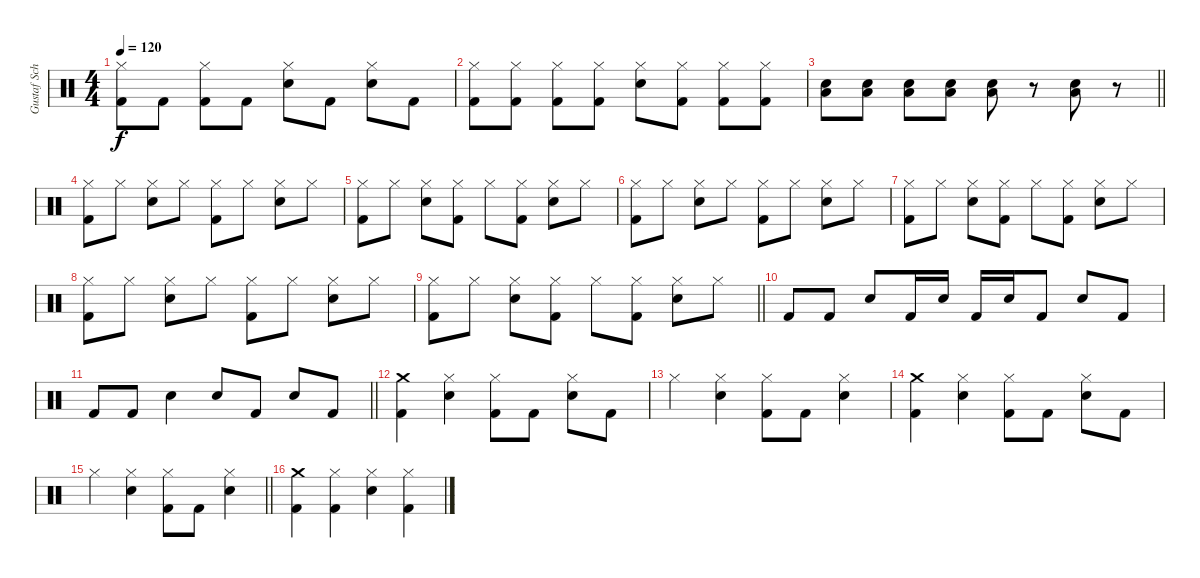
\track ("Gustaf Schafer" "Gustaf Sch") {instrument percussion}
\staff {score}
\articulation defaults
\ts (4 4)
\tempo 120
\clef neutral
\ks c
("Hi-Hat (closed)" "Kick (hit) 2").8{dy f} "Kick (hit) 2".8 ("Hi-Hat (closed)" "Kick (hit) 2").8 "Kick (hit) 2".8 ("Hi-Hat (closed)" "Snare (hit) 2").8 "Kick (hit) 2".8 ("Hi-Hat (closed)" "Snare (hit) 2").8 "Kick (hit) 2".8 |
("Hi-Hat (closed)" "Kick (hit) 2").8 ("Hi-Hat (closed)" "Kick (hit) 2").8 ("Hi-Hat (closed)" "Kick (hit) 2").8 ("Hi-Hat (closed)" "Kick (hit) 2").8 ("Hi-Hat (closed)" "Snare (hit) 2").8 ("Hi-Hat (closed)" "Kick (hit) 2").8 ("Hi-Hat (closed)" "Kick (hit) 2").8 ("Hi-Hat (closed)" "Kick (hit) 2").8 |
\barLineRight lightlight
("Snare (hit) 2" "Low Tom (hit)").8 ("Snare (hit) 2" "Low Tom (hit)").8 ("Snare (hit) 2" "Low Tom (hit)").8 ("Snare (hit) 2" "Low Tom (hit)").8 ("Snare (hit) 2" "Low Tom (hit)").8 r.8 ("Snare (hit) 2" "Low Tom (hit)").8 r.8 |
\section ("" "")
("Hi-Hat (closed)" "Kick (hit) 2").8 "Hi-Hat (closed)".8 ("Hi-Hat (closed)" "Snare (hit) 2").8 "Hi-Hat (closed)".8 ("Hi-Hat (closed)" "Kick (hit) 2").8 "Hi-Hat (closed)".8 ("Hi-Hat (closed)" "Snare (hit) 2").8 "Hi-Hat (closed)".8 |
("Hi-Hat (closed)" "Kick (hit) 2").8 "Hi-Hat (closed)".8 ("Hi-Hat (closed)" "Snare (hit) 2").8 ("Hi-Hat (closed)" "Kick (hit) 2").8 "Hi-Hat (closed)".8 ("Hi-Hat (closed)" "Kick (hit) 2").8 ("Hi-Hat (closed)" "Snare (hit) 2").8 "Hi-Hat (closed)".8 |
("Hi-Hat (closed)" "Kick (hit) 2").8 "Hi-Hat (closed)".8 ("Hi-Hat (closed)" "Snare (hit) 2").8 "Hi-Hat (closed)".8 ("Hi-Hat (closed)" "Kick (hit) 2").8 "Hi-Hat (closed)".8 ("Hi-Hat (closed)" "Snare (hit) 2").8 "Hi-Hat (closed)".8 |
("Hi-Hat (closed)" "Kick (hit) 2").8 "Hi-Hat (closed)".8 ("Hi-Hat (closed)" "Snare (hit) 2").8 ("Hi-Hat (closed)" "Kick (hit) 2").8 "Hi-Hat (closed)".8 ("Hi-Hat (closed)" "Kick (hit) 2").8 ("Hi-Hat (closed)" "Snare (hit) 2").8 "Hi-Hat (closed)".8 |
("Hi-Hat (closed)" "Kick (hit) 2").8 "Hi-Hat (closed)".8 ("Hi-Hat (closed)" "Snare (hit) 2").8 "Hi-Hat (closed)".8 ("Hi-Hat (closed)" "Kick (hit) 2").8 "Hi-Hat (closed)".8 ("Hi-Hat (closed)" "Snare (hit) 2").8 "Hi-Hat (closed)".8 |
\barLineRight lightlight
("Hi-Hat (closed)" "Kick (hit) 2").8 "Hi-Hat (closed)".8 ("Hi-Hat (closed)" "Snare (hit) 2").8 ("Hi-Hat (closed)" "Kick (hit) 2").8 "Hi-Hat (closed)".8 ("Hi-Hat (closed)" "Kick (hit) 2").8 ("Hi-Hat (closed)" "Snare (hit) 2").8 "Hi-Hat (closed)".8 |
\section ("" "")
"Kick (hit) 2".8 "Kick (hit) 2".8 "Snare (hit) 2".8 "Kick (hit) 2".16 "Snare (hit) 2".16 "Kick (hit) 2".16 "Snare (hit) 2".16 "Kick (hit) 2".8 "Snare (hit) 2".8 "Kick (hit) 2".8 |
\barLineRight lightlight "Kick (hit) 2".8 "Kick (hit) 2".8 "Snare (hit) 2".4 "Snare (hit) 2".8 "Kick (hit) 2".8 "Snare (hit) 2".8 "Kick (hit) 2".8
|
\section ("" "")
("Crash medium (hit)" "Kick (hit) 2").4 ("Hi-Hat (closed)" "Snare (hit) 2").4 ("Hi-Hat (closed)" "Kick (hit) 2").8 "Kick (hit) 2".8 ("Hi-Hat (closed)" "Snare (hit) 2").8 "Kick (hit) 2".8 |
"Hi-Hat (closed)".4 ("Hi-Hat (closed)" "Snare (hit) 2").4 ("Hi-Hat (closed)" "Kick (hit) 2").8 "Kick (hit) 2".8 ("Hi-Hat (closed)" "Snare (hit) 2").4 |
("Crash medium (hit)" "Kick (hit) 2").4 ("Hi-Hat (closed)" "Snare (hit) 2").4 ("Hi-Hat (closed)" "Kick (hit) 2").8 "Kick (hit) 2".8 ("Hi-Hat (closed)" "Snare (hit) 2").8 "Kick (hit) 2".8 |
\barLineRight lightlight "Hi-Hat (closed)".4
("Hi-Hat (closed)" "Snare (hit) 2").4 ("Hi-Hat (closed)" "Kick (hit) 2").8 "Kick (hit) 2".8 ("Hi-Hat (closed)" "Snare (hit) 2").4 |
\section ("" "")
("Crash medium (hit)" "Kick (hit) 2").4 ("Hi-Hat (closed)" "Kick (hit) 2").4 ("Hi-Hat (closed)" "Snare (hit) 2").4 ("Hi-Hat (closed)" "Kick (hit) 2").4
